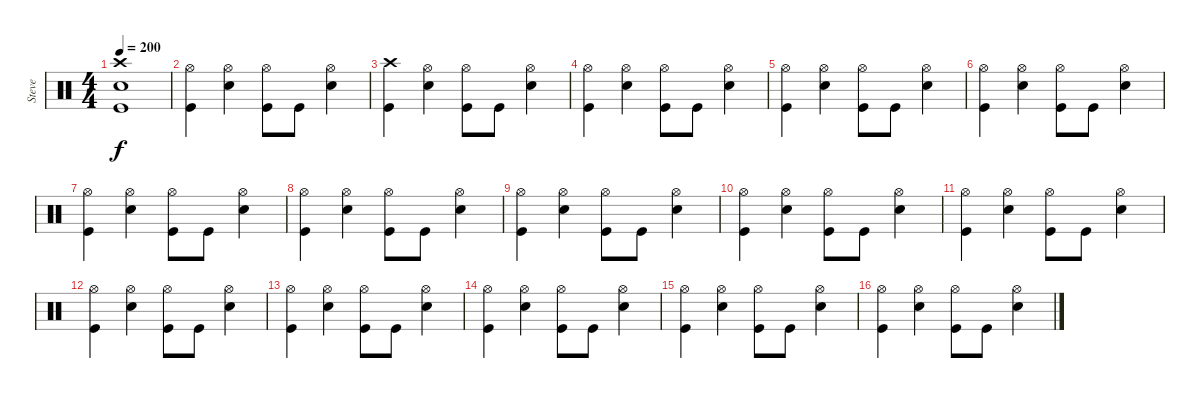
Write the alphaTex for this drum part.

\track ("Steve" "Steve") {instrument percussion}
\staff {score}
\articulation defaults
\ts (4 4)
\tempo 200
\clef neutral
\ks c
("Crash high (hit)" "Snare (hit) 2" "Kick (hit)").1{dy f} |
("Hi-Hat (open)" "Kick (hit)").4 ("Hi-Hat (open)" "Snare (hit) 2").4 ("Hi-Hat (open)" "Kick (hit)").8 "Kick (hit)".8 ("Hi-Hat (open)" "Snare (hit) 2").4 |
("Crash high (hit)" "Kick (hit)").4 ("Hi-Hat (open)" "Snare (hit) 2").4 ("Hi-Hat (open)" "Kick (hit)").8 "Kick (hit)".8 ("Hi-Hat (open)" "Snare (hit) 2").4 |
("Hi-Hat (open)" "Kick (hit)").4 ("Hi-Hat (open)" "Snare (hit) 2").4 ("Hi-Hat (open)" "Kick (hit)").8 "Kick (hit)".8 ("Hi-Hat (open)" "Snare (hit) 2").4 |
("Hi-Hat (open)" "Kick (hit)").4 ("Hi-Hat (open)" "Snare (hit) 2").4 ("Hi-Hat (open)" "Kick (hit)").8 "Kick (hit)".8 ("Hi-Hat (open)" "Snare (hit) 2").4 |
("Hi-Hat (open)" "Kick (hit)").4 ("Hi-Hat (open)" "Snare (hit) 2").4 ("Hi-Hat (open)" "Kick (hit)").8 "Kick (hit)".8 ("Hi-Hat (open)" "Snare (hit) 2").4 |
("Hi-Hat (open)" "Kick (hit)").4 ("Hi-Hat (open)" "Snare (hit) 2").4 ("Hi-Hat (open)" "Kick (hit)").8 "Kick (hit)".8 ("Hi-Hat (open)" "Snare (hit) 2").4 |
("Hi-Hat (open)" "Kick (hit)").4 ("Hi-Hat (open)" "Snare (hit) 2").4 ("Hi-Hat (open)" "Kick (hit)").8 "Kick (hit)".8 ("Hi-Hat (open)" "Snare (hit) 2").4 |
("Hi-Hat (open)" "Kick (hit)").4 ("Hi-Hat (open)" "Snare (hit) 2").4 ("Hi-Hat (open)" "Kick (hit)").8 "Kick (hit)".8 ("Hi-Hat (open)" "Snare (hit) 2").4 |
("Hi-Hat (open)" "Kick (hit)").4 ("Hi-Hat (open)" "Snare (hit) 2").4 ("Hi-Hat (open)" "Kick (hit)").8 "Kick (hit)".8 ("Hi-Hat (open)" "Snare (hit) 2").4 |
("Hi-Hat (open)" "Kick (hit)").4 ("Hi-Hat (open)" "Snare (hit) 2").4 ("Hi-Hat (open)" "Kick (hit)").8 "Kick (hit)".8 ("Hi-Hat (open)" "Snare (hit) 2").4 |
("Hi-Hat (open)" "Kick (hit)").4 ("Hi-Hat (open)" "Snare (hit) 2").4 ("Hi-Hat (open)" "Kick (hit)").8 "Kick (hit)".8 ("Hi-Hat (open)" "Snare (hit) 2").4 |
("Hi-Hat (open)" "Kick (hit)").4 ("Hi-Hat (open)" "Snare (hit) 2").4 ("Hi-Hat (open)" "Kick (hit)").8 "Kick (hit)".8 ("Hi-Hat (open)" "Snare (hit) 2").4 |
("Hi-Hat (open)" "Kick (hit)").4 ("Hi-Hat (open)" "Snare (hit) 2").4 ("Hi-Hat (open)" "Kick (hit)").8 "Kick (hit)".8 ("Hi-Hat (open)" "Snare (hit) 2").4 |
("Hi-Hat (open)" "Kick (hit)").4 ("Hi-Hat (open)" "Snare (hit) 2").4 ("Hi-Hat (open)" "Kick (hit)").8 "Kick (hit)".8 ("Hi-Hat (open)" "Snare (hit) 2").4 |
("Hi-Hat (open)" "Kick (hit)").4 ("Hi-Hat (open)" "Snare (hit) 2").4 ("Hi-Hat (open)" "Kick (hit)").8 "Kick (hit)".8 ("Hi-Hat (open)" "Snare (hit) 2").4
